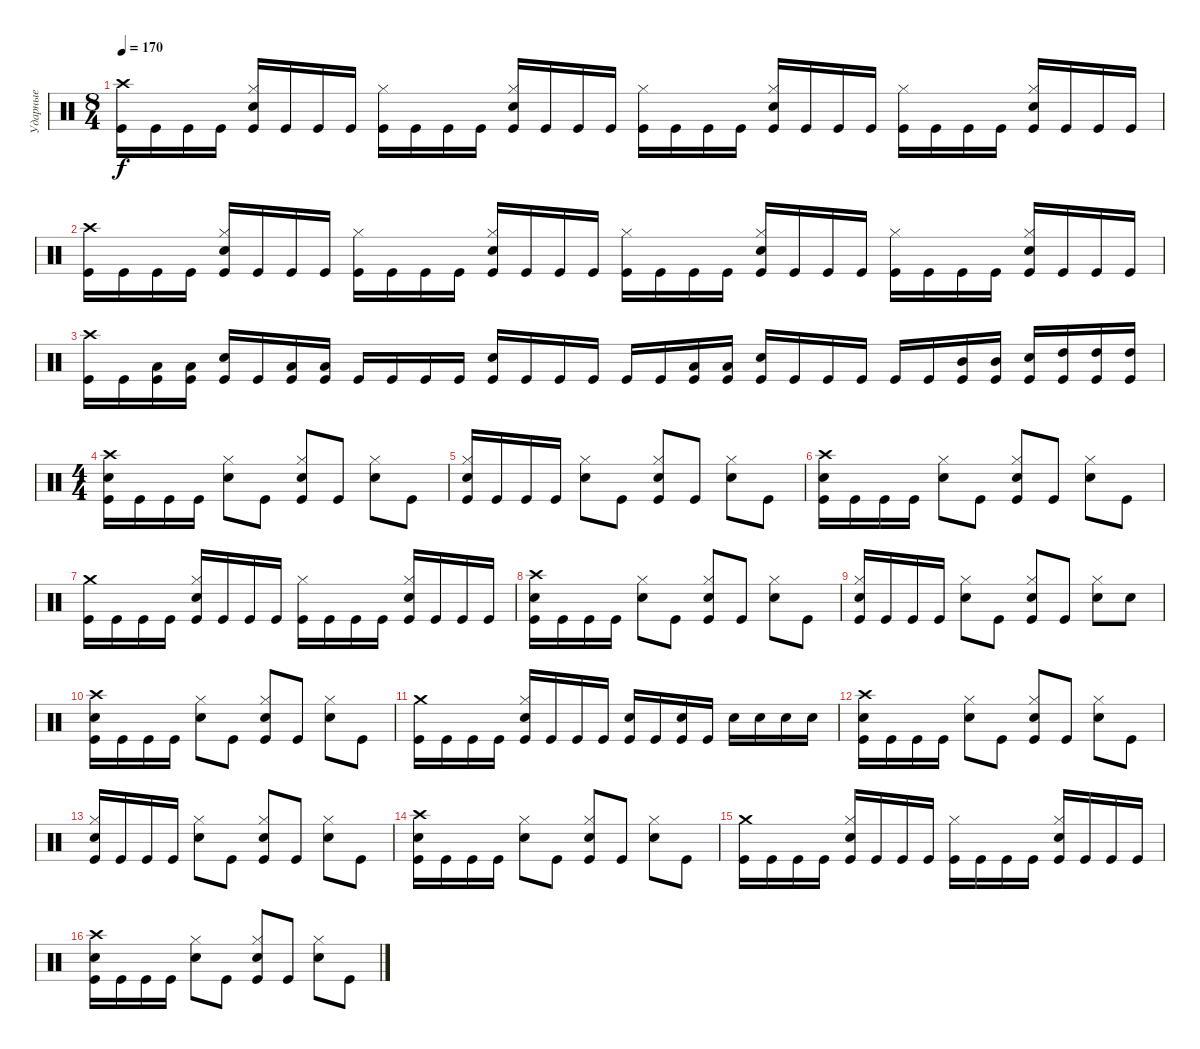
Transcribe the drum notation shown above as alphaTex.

\track ("Ударные" "Ударные") {instrument percussion}
\staff {score}
\articulation defaults
\ts (8 4)
\tempo 170
\clef neutral
\ks c
("Crash high (hit)" "Kick (hit)").16{dy f} "Kick (hit)".16 "Kick (hit)".16 "Kick (hit)".16 ("Hi-Hat (closed)" "Electric Snare (hit)" "Kick (hit)").16 "Kick (hit)".16 "Kick (hit)".16 "Kick (hit)".16 ("Hi-Hat (closed)" "Kick (hit)").16 "Kick (hit)".16 "Kick (hit)".16 "Kick (hit)".16 ("Hi-Hat (closed)" "Electric Snare (hit)" "Kick (hit)").16 "Kick (hit)".16 "Kick (hit)".16 "Kick (hit)".16 ("Hi-Hat (closed)" "Kick (hit)").16 "Kick (hit)".16 "Kick (hit)".16 "Kick (hit)".16 ("Hi-Hat (closed)" "Electric Snare (hit)" "Kick (hit)").16 "Kick (hit)".16 "Kick (hit)".16 "Kick (hit)".16 ("Hi-Hat (closed)" "Kick (hit)").16 "Kick (hit)".16 "Kick (hit)".16 "Kick (hit)".16 ("Hi-Hat (closed)" "Electric Snare (hit)" "Kick (hit)").16 "Kick (hit)".16 "Kick (hit)".16 "Kick (hit)".16 |
("Crash high (hit)" "Kick (hit)").16 "Kick (hit)".16 "Kick (hit)".16 "Kick (hit)".16 ("Hi-Hat (closed)" "Electric Snare (hit)" "Kick (hit)").16 "Kick (hit)".16 "Kick (hit)".16 "Kick (hit)".16 ("Hi-Hat (closed)" "Kick (hit)").16 "Kick (hit)".16 "Kick (hit)".16 "Kick (hit)".16 ("Hi-Hat (closed)" "Electric Snare (hit)" "Kick (hit)").16 "Kick (hit)".16 "Kick (hit)".16 "Kick (hit)".16 ("Hi-Hat (closed)" "Kick (hit)").16 "Kick (hit)".16 "Kick (hit)".16 "Kick (hit)".16 ("Hi-Hat (closed)" "Electric Snare (hit)" "Kick (hit)").16 "Kick (hit)".16 "Kick (hit)".16 "Kick (hit)".16 ("Hi-Hat (closed)" "Kick (hit)").16 "Kick (hit)".16 "Kick (hit)".16 "Kick (hit)".16 ("Hi-Hat (closed)" "Electric Snare (hit)" "Kick (hit)").16 "Kick (hit)".16 "Kick (hit)".16 "Kick (hit)".16 |
("Crash high (hit)" "Kick (hit)").16 "Kick (hit)".16 ("Low Tom (hit)" "Kick (hit)").16 ("Low Tom (hit)" "Kick (hit)").16 ("Electric Snare (hit)" "Kick (hit)").16 "Kick (hit)".16 ("Low Tom (hit)" "Kick (hit)").16 ("Low Tom (hit)" "Kick (hit)").16 "Kick (hit)".16 "Kick (hit)".16 "Kick (hit)".16 "Kick (hit)".16 ("Electric Snare (hit)" "Kick (hit)").16 "Kick (hit)".16 "Kick (hit)".16 "Kick (hit)".16 "Kick (hit)".16 "Kick (hit)".16 ("Low Tom (hit)" "Kick (hit)").16 ("Low Tom (hit)" "Kick (hit)").16 ("Electric Snare (hit)" "Kick (hit)").16 "Kick (hit)".16 "Kick (hit)".16 "Kick (hit)".16 "Kick (hit)".16 "Kick (hit)".16 ("Mid Tom (hit)" "Kick (hit)").16 ("Mid Tom (hit)" "Kick (hit)").16 ("Electric Snare (hit)" "Kick (hit)").16 ("High Tom (hit)" "Kick (hit)").16 ("High Tom (hit)" "Kick (hit)").16 ("High Tom (hit)" "Kick (hit)").16 |
\ts (4 4)
("Crash high (hit)" "Electric Snare (hit)" "Kick (hit)").16 "Kick (hit)".16 "Kick (hit)".16 "Kick (hit)".16 ("Hi-Hat (closed)" "Electric Snare (hit)").8 "Kick (hit)".8 ("Hi-Hat (closed)" "Electric Snare (hit)" "Kick (hit)").8 "Kick (hit)".8 ("Hi-Hat (closed)" "Electric Snare (hit)").8 "Kick (hit)".8 |
("Hi-Hat (closed)" "Electric Snare (hit)" "Kick (hit)").16 "Kick (hit)".16 "Kick (hit)".16 "Kick (hit)".16 ("Hi-Hat (closed)" "Electric Snare (hit)").8 "Kick (hit)".8 ("Hi-Hat (closed)" "Electric Snare (hit)" "Kick (hit)").8 "Kick (hit)".8 ("Hi-Hat (closed)" "Electric Snare (hit)").8 "Kick (hit)".8 |
("Crash high (hit)" "Electric Snare (hit)" "Kick (hit)").16 "Kick (hit)".16 "Kick (hit)".16 "Kick (hit)".16 ("Hi-Hat (closed)" "Electric Snare (hit)").8 "Kick (hit)".8 ("Hi-Hat (closed)" "Electric Snare (hit)" "Kick (hit)").8 "Kick (hit)".8 ("Hi-Hat (closed)" "Electric Snare (hit)").8 "Kick (hit)".8 |
("Crash medium (hit)" "Kick (hit)").16 "Kick (hit)".16 "Kick (hit)".16 "Kick (hit)".16 ("Hi-Hat (closed)" "Electric Snare (hit)" "Kick (hit)").16 "Kick (hit)".16 "Kick (hit)".16 "Kick (hit)".16 ("Hi-Hat (closed)" "Kick (hit)").16 "Kick (hit)".16 "Kick (hit)".16 "Kick (hit)".16 ("Hi-Hat (closed)" "Electric Snare (hit)" "Kick (hit)").16 "Kick (hit)".16 "Kick (hit)".16 "Kick (hit)".16 |
("Crash high (hit)" "Electric Snare (hit)" "Kick (hit)").16 "Kick (hit)".16 "Kick (hit)".16 "Kick (hit)".16 ("Hi-Hat (closed)" "Electric Snare (hit)").8 "Kick (hit)".8 ("Hi-Hat (closed)" "Electric Snare (hit)" "Kick (hit)").8 "Kick (hit)".8 ("Hi-Hat (closed)" "Electric Snare (hit)").8 "Kick (hit)".8 |
("Hi-Hat (closed)" "Electric Snare (hit)" "Kick (hit)").16 "Kick (hit)".16 "Kick (hit)".16 "Kick (hit)".16 ("Hi-Hat (closed)" "Electric Snare (hit)").8 "Kick (hit)".8 ("Hi-Hat (closed)" "Electric Snare (hit)" "Kick (hit)").8 "Kick (hit)".8 ("Hi-Hat (closed)" "Electric Snare (hit)").8 "Electric Snare (hit)".8 |
("Crash high (hit)" "Electric Snare (hit)" "Kick (hit)").16 "Kick (hit)".16 "Kick (hit)".16 "Kick (hit)".16 ("Hi-Hat (closed)" "Electric Snare (hit)").8 "Kick (hit)".8 ("Hi-Hat (closed)" "Electric Snare (hit)" "Kick (hit)").8 "Kick (hit)".8 ("Hi-Hat (closed)" "Electric Snare (hit)").8 "Kick (hit)".8 |
("Crash medium (hit)" "Kick (hit)").16 "Kick (hit)".16 "Kick (hit)".16 "Kick (hit)".16 ("Hi-Hat (closed)" "Electric Snare (hit)" "Kick (hit)").16 "Kick (hit)".16 "Kick (hit)".16 "Kick (hit)".16 ("Electric Snare (hit)" "Kick (hit)").16 "Kick (hit)".16 ("Electric Snare (hit)" "Kick (hit)").16 "Kick (hit)".16 "Electric Snare (hit)".16 "Electric Snare (hit)".16 "Electric Snare (hit)".16 "Electric Snare (hit)".16 |
("Crash high (hit)" "Electric Snare (hit)" "Kick (hit)").16 "Kick (hit)".16 "Kick (hit)".16 "Kick (hit)".16 ("Hi-Hat (closed)" "Electric Snare (hit)").8 "Kick (hit)".8 ("Hi-Hat (closed)" "Electric Snare (hit)" "Kick (hit)").8 "Kick (hit)".8 ("Hi-Hat (closed)" "Electric Snare (hit)").8 "Kick (hit)".8 |
("Hi-Hat (closed)" "Electric Snare (hit)" "Kick (hit)").16 "Kick (hit)".16 "Kick (hit)".16 "Kick (hit)".16 ("Hi-Hat (closed)" "Electric Snare (hit)").8 "Kick (hit)".8 ("Hi-Hat (closed)" "Electric Snare (hit)" "Kick (hit)").8 "Kick (hit)".8 ("Hi-Hat (closed)" "Electric Snare (hit)").8 "Kick (hit)".8 |
("Crash high (hit)" "Electric Snare (hit)" "Kick (hit)").16 "Kick (hit)".16 "Kick (hit)".16 "Kick (hit)".16 ("Hi-Hat (closed)" "Electric Snare (hit)").8 "Kick (hit)".8 ("Hi-Hat (closed)" "Electric Snare (hit)" "Kick (hit)").8 "Kick (hit)".8 ("Hi-Hat (closed)" "Electric Snare (hit)").8 "Kick (hit)".8 |
("Crash medium (hit)" "Kick (hit)").16 "Kick (hit)".16 "Kick (hit)".16 "Kick (hit)".16 ("Hi-Hat (closed)" "Electric Snare (hit)" "Kick (hit)").16 "Kick (hit)".16 "Kick (hit)".16 "Kick (hit)".16 ("Hi-Hat (closed)" "Kick (hit)").16 "Kick (hit)".16 "Kick (hit)".16 "Kick (hit)".16 ("Hi-Hat (closed)" "Electric Snare (hit)" "Kick (hit)").16 "Kick (hit)".16 "Kick (hit)".16 "Kick (hit)".16 |
("Crash high (hit)" "Electric Snare (hit)" "Kick (hit)").16 "Kick (hit)".16 "Kick (hit)".16 "Kick (hit)".16 ("Hi-Hat (closed)" "Electric Snare (hit)").8 "Kick (hit)".8 ("Hi-Hat (closed)" "Electric Snare (hit)" "Kick (hit)").8 "Kick (hit)".8 ("Hi-Hat (closed)" "Electric Snare (hit)").8 "Kick (hit)".8
